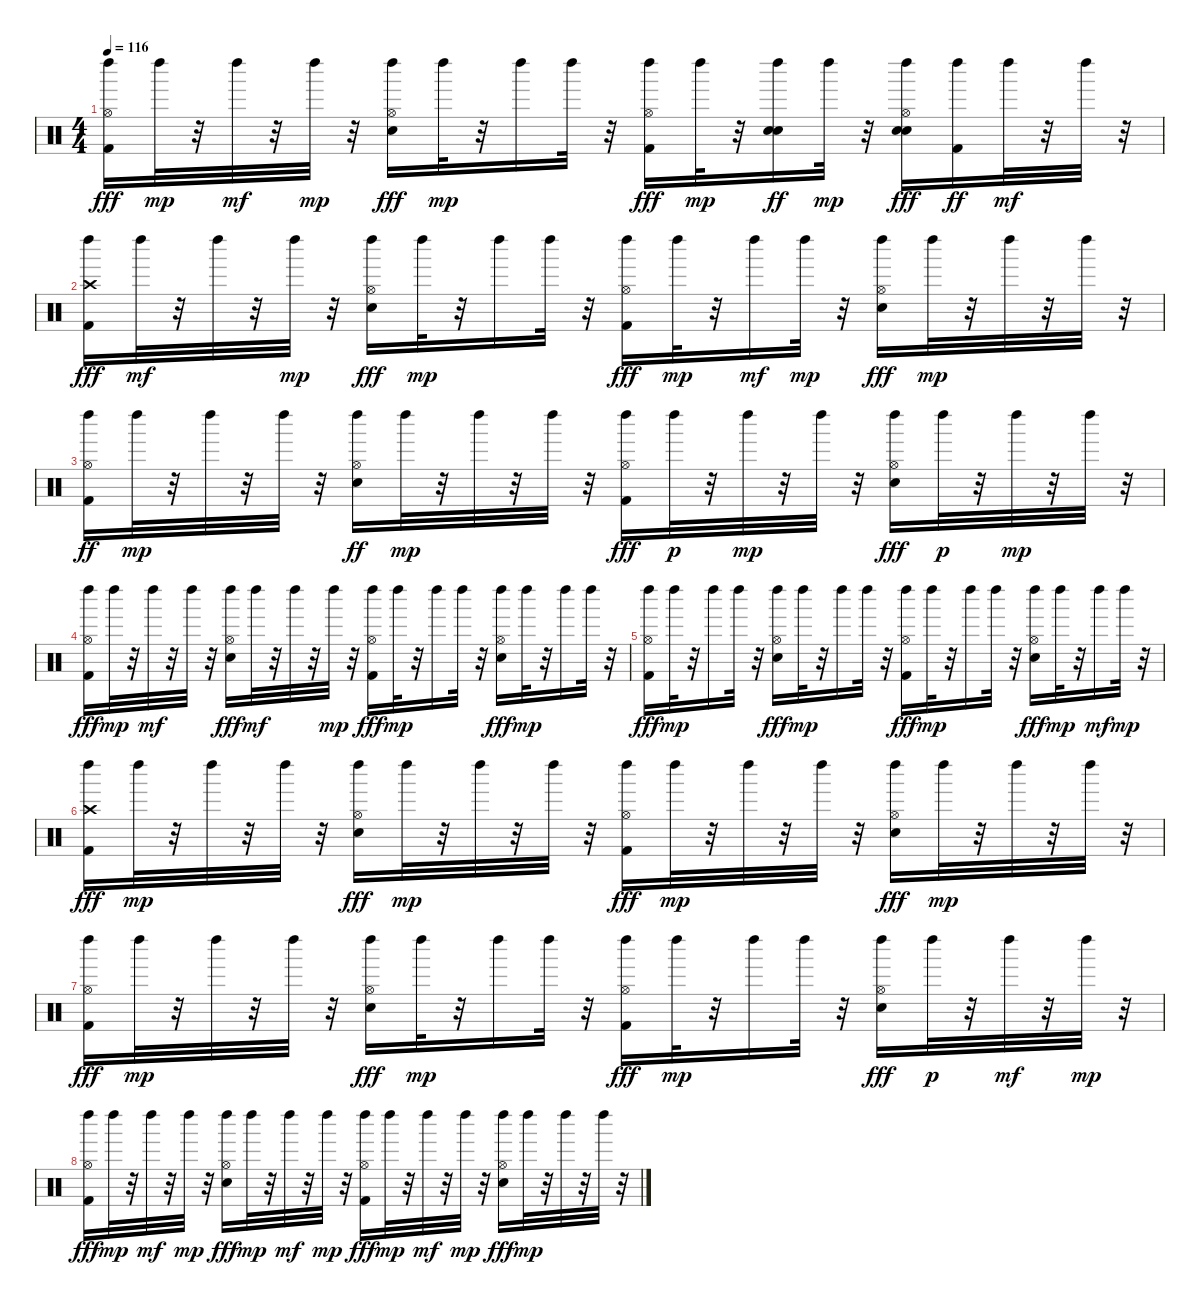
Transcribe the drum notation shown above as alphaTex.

\track "" {instrument percussion}
\staff {score}
\articulation defaults
\ts (4 4)
\tempo 116
\clef neutral
\ks c
("Left Maraca (hit)" "Kick (hit) 2" "Hi-Hat (open)").16{dy fff} "Left Maraca (hit)".32{dy mp} r.32 "Left Maraca (hit)".32{dy mf} r.32 "Left Maraca (hit)".32{dy mp} r.32 ("Left Maraca (hit)" "Snare (hit) 2" "Hi-Hat (open)").16{dy fff} "Left Maraca (hit)".32{dy mp} r.32 "Left Maraca (hit)".16 "Left Maraca (hit)".32 r.32 ("Left Maraca (hit)" "Kick (hit) 2" "Hi-Hat (open)").16{dy fff} "Left Maraca (hit)".32{dy mp} r.32 ("Snare (hit) 2" "Left Maraca (hit)" "Snare (hit) 2").16{dy ff} "Left Maraca (hit)".32{dy mp} r.32 ("Snare (hit) 2" "Left Maraca (hit)" "Snare (hit) 2" "Hi-Hat (open)").16{dy fff} ("Left Maraca (hit)" "Kick (hit) 2").16{dy ff} "Left Maraca (hit)".32{dy mf} r.32 "Left Maraca (hit)".32 r.32 |
("Left Maraca (hit)" "Kick (hit) 2" "Crash high (hit)").16{dy fff} "Left Maraca (hit)".32{dy mf} r.32 "Left Maraca (hit)".32 r.32 "Left Maraca (hit)".32{dy mp} r.32 ("Left Maraca (hit)" "Snare (hit) 2" "Hi-Hat (open)").16{dy fff} "Left Maraca (hit)".32{dy mp} r.32 "Left Maraca (hit)".16 "Left Maraca (hit)".32 r.32 ("Left Maraca (hit)" "Kick (hit) 2" "Hi-Hat (open)").16{dy fff} "Left Maraca (hit)".32{dy mp} r.32 "Left Maraca (hit)".16{dy mf} "Left Maraca (hit)".32{dy mp} r.32 ("Left Maraca (hit)" "Snare (hit) 2" "Hi-Hat (open)").16{dy fff} "Left Maraca (hit)".32{dy mp} r.32 "Left Maraca (hit)".32 r.32 "Left Maraca (hit)".32 r.32 |
("Left Maraca (hit)" "Kick (hit) 2" "Hi-Hat (open)").16{dy ff} "Left Maraca (hit)".32{dy mp} r.32 "Left Maraca (hit)".32 r.32 "Left Maraca (hit)".32 r.32 ("Left Maraca (hit)" "Snare (hit) 2" "Hi-Hat (open)").16{dy ff} "Left Maraca (hit)".32{dy mp} r.32 "Left Maraca (hit)".32 r.32 "Left Maraca (hit)".32 r.32 ("Left Maraca (hit)" "Kick (hit) 2" "Hi-Hat (open)").16{dy fff} "Left Maraca (hit)".32{dy p} r.32 "Left Maraca (hit)".32{dy mp} r.32 "Left Maraca (hit)".32 r.32 ("Left Maraca (hit)" "Snare (hit) 2" "Hi-Hat (open)").16{dy fff} "Left Maraca (hit)".32{dy p} r.32 "Left Maraca (hit)".32{dy mp} r.32 "Left Maraca (hit)".32 r.32 |
("Left Maraca (hit)" "Kick (hit) 2" "Hi-Hat (open)").16{dy fff} "Left Maraca (hit)".32{dy mp} r.32 "Left Maraca (hit)".32{dy mf} r.32 "Left Maraca (hit)".32 r.32 ("Left Maraca (hit)" "Snare (hit) 2" "Hi-Hat (open)").16{dy fff} "Left Maraca (hit)".32{dy mf} r.32 "Left Maraca (hit)".32 r.32 "Left Maraca (hit)".32{dy mp} r.32 ("Left Maraca (hit)" "Kick (hit) 2" "Hi-Hat (open)").16{dy fff} "Left Maraca (hit)".32{dy mp} r.32 "Left Maraca (hit)".16 "Left Maraca (hit)".32 r.32 ("Left Maraca (hit)" "Snare (hit) 2" "Hi-Hat (open)").16{dy fff} "Left Maraca (hit)".32{dy mp} r.32 "Left Maraca (hit)".16 "Left Maraca (hit)".32 r.32 |
("Left Maraca (hit)" "Kick (hit) 2" "Hi-Hat (open)").16{dy fff} "Left Maraca (hit)".32{dy mp} r.32 "Left Maraca (hit)".16 "Left Maraca (hit)".32 r.32 ("Left Maraca (hit)" "Snare (hit) 2" "Hi-Hat (open)").16{dy fff} "Left Maraca (hit)".32{dy mp} r.32 "Left Maraca (hit)".16 "Left Maraca (hit)".32 r.32 ("Left Maraca (hit)" "Kick (hit) 2" "Hi-Hat (open)").16{dy fff} "Left Maraca (hit)".32{dy mp} r.32 "Left Maraca (hit)".16 "Left Maraca (hit)".32 r.32 ("Left Maraca (hit)" "Snare (hit) 2" "Hi-Hat (open)").16{dy fff} "Left Maraca (hit)".32{dy mp} r.32 "Left Maraca (hit)".16{dy mf} "Left Maraca (hit)".32{dy mp} r.32 |
("Left Maraca (hit)" "Kick (hit) 2" "Crash high (hit)").16{dy fff} "Left Maraca (hit)".32{dy mp} r.32 "Left Maraca (hit)".32 r.32 "Left Maraca (hit)".32 r.32 ("Left Maraca (hit)" "Snare (hit) 2" "Hi-Hat (open)").16{dy fff} "Left Maraca (hit)".32{dy mp} r.32 "Left Maraca (hit)".32 r.32 "Left Maraca (hit)".32 r.32 ("Left Maraca (hit)" "Kick (hit) 2" "Hi-Hat (open)").16{dy fff} "Left Maraca (hit)".32{dy mp} r.32 "Left Maraca (hit)".32 r.32 "Left Maraca (hit)".32 r.32 ("Left Maraca (hit)" "Snare (hit) 2" "Hi-Hat (open)").16{dy fff} "Left Maraca (hit)".32{dy mp} r.32 "Left Maraca (hit)".32 r.32 "Left Maraca (hit)".32 r.32 |
("Left Maraca (hit)" "Kick (hit) 2" "Hi-Hat (open)").16{dy fff} "Left Maraca (hit)".32{dy mp} r.32 "Left Maraca (hit)".32 r.32 "Left Maraca (hit)".32 r.32 ("Left Maraca (hit)" "Snare (hit) 2" "Hi-Hat (open)").16{dy fff} "Left Maraca (hit)".32{dy mp} r.32 "Left Maraca (hit)".16 "Left Maraca (hit)".32 r.32 ("Left Maraca (hit)" "Kick (hit) 2" "Hi-Hat (open)").16{dy fff} "Left Maraca (hit)".32{dy mp} r.32 "Left Maraca (hit)".16 "Left Maraca (hit)".32 r.32 ("Left Maraca (hit)" "Snare (hit) 2" "Hi-Hat (open)").16{dy fff} "Left Maraca (hit)".32{dy p} r.32 "Left Maraca (hit)".32{dy mf} r.32 "Left Maraca (hit)".32{dy mp} r.32 |
("Left Maraca (hit)" "Kick (hit) 2" "Hi-Hat (open)").16{dy fff} "Left Maraca (hit)".32{dy mp} r.32 "Left Maraca (hit)".32{dy mf} r.32 "Left Maraca (hit)".32{dy mp} r.32 ("Left Maraca (hit)" "Snare (hit) 2" "Hi-Hat (open)").16{dy fff} "Left Maraca (hit)".32{dy mp} r.32 "Left Maraca (hit)".32{dy mf} r.32 "Left Maraca (hit)".32{dy mp} r.32 ("Left Maraca (hit)" "Kick (hit) 2" "Hi-Hat (open)").16{dy fff} "Left Maraca (hit)".32{dy mp} r.32 "Left Maraca (hit)".32{dy mf} r.32 "Left Maraca (hit)".32{dy mp} r.32 ("Left Maraca (hit)" "Snare (hit) 2" "Hi-Hat (open)").16{dy fff} "Left Maraca (hit)".32{dy mp} r.32 "Left Maraca (hit)".32 r.32 "Left Maraca (hit)".32 r.32
